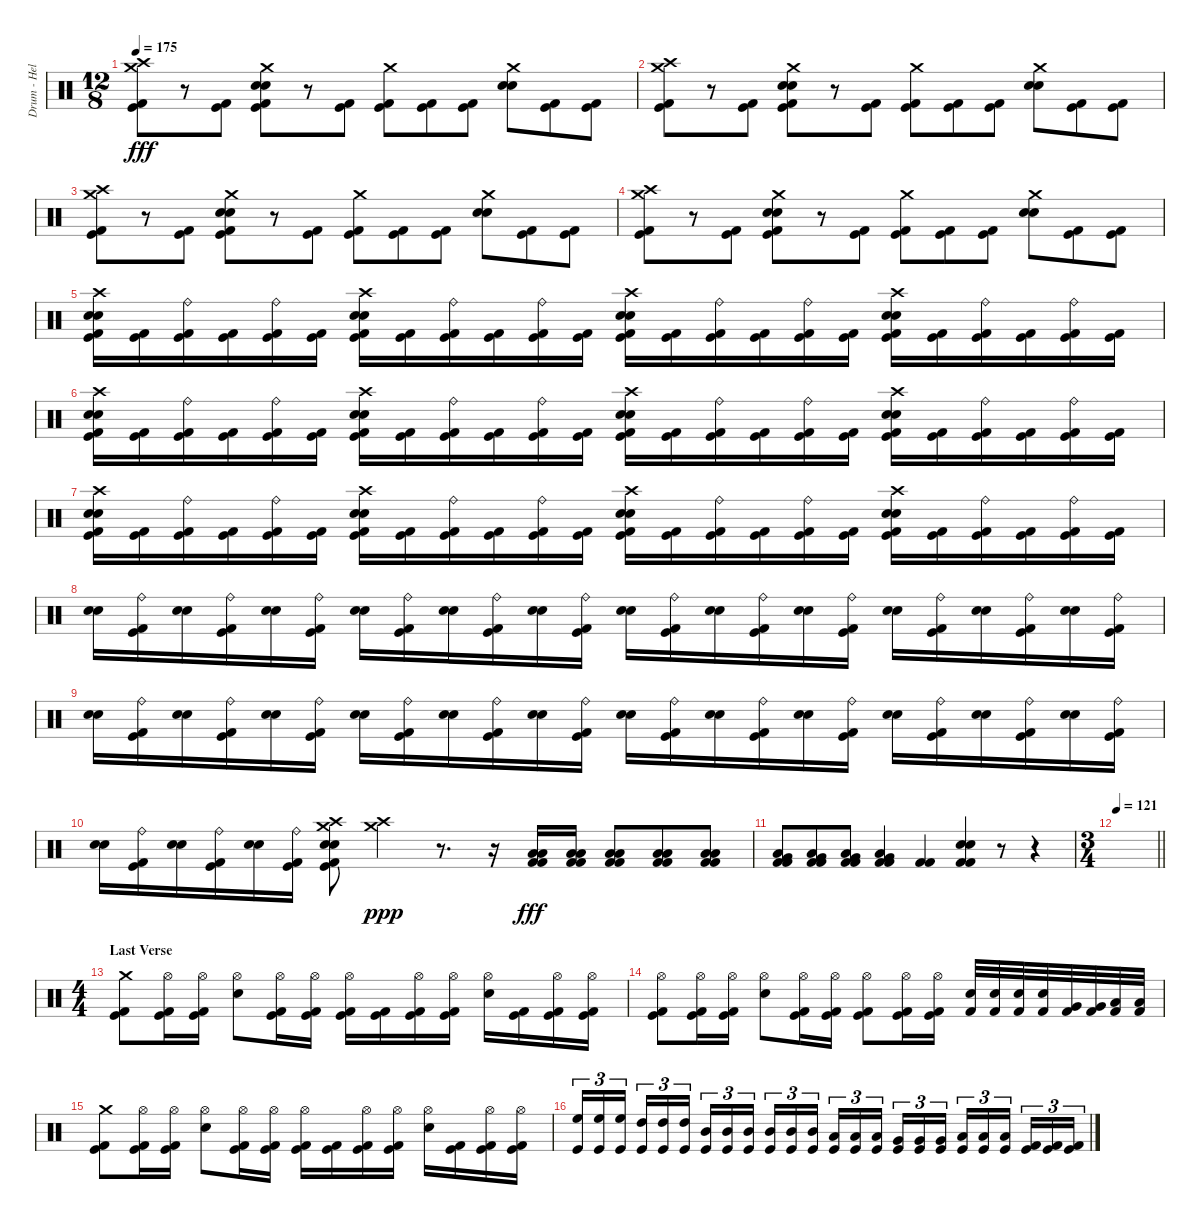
\track ("Drum - Hellhammer" "Drum - Hel") {instrument percussion}
\staff {score}
\articulation defaults
\ts (12 8)
\tempo 175
\clef neutral
\ks c
("Crash high (hit)" "Crash medium (hit)" "Kick (hit)" "Kick (hit) 2").8{dy fff} r.8 ("Kick (hit)" "Kick (hit) 2").8 ("Crash medium (hit)" "Electric Snare (hit)" "Electric Snare (hit)" "Kick (hit)" "Kick (hit) 2").8 r.8 ("Kick (hit)" "Kick (hit) 2").8 ("Crash medium (hit)" "Kick (hit)" "Kick (hit) 2").8 ("Kick (hit)" "Kick (hit) 2").8 ("Kick (hit)" "Kick (hit) 2").8 ("Crash medium (hit)" "Electric Snare (hit)" "Electric Snare (hit)").8 ("Kick (hit)" "Kick (hit) 2").8 ("Kick (hit)" "Kick (hit) 2").8 |
("Crash high (hit)" "Crash medium (hit)" "Kick (hit)" "Kick (hit) 2").8 r.8 ("Kick (hit)" "Kick (hit) 2").8 ("Crash medium (hit)" "Electric Snare (hit)" "Electric Snare (hit)" "Kick (hit)" "Kick (hit) 2").8 r.8 ("Kick (hit)" "Kick (hit) 2").8 ("Crash medium (hit)" "Kick (hit)" "Kick (hit) 2").8 ("Kick (hit)" "Kick (hit) 2").8 ("Kick (hit)" "Kick (hit) 2").8 ("Crash medium (hit)" "Electric Snare (hit)" "Electric Snare (hit)").8 ("Kick (hit)" "Kick (hit) 2").8 ("Kick (hit)" "Kick (hit) 2").8 |
("Crash high (hit)" "Crash medium (hit)" "Kick (hit)" "Kick (hit) 2").8 r.8 ("Kick (hit)" "Kick (hit) 2").8 ("Crash medium (hit)" "Electric Snare (hit)" "Electric Snare (hit)" "Kick (hit)" "Kick (hit) 2").8 r.8 ("Kick (hit)" "Kick (hit) 2").8 ("Crash medium (hit)" "Kick (hit)" "Kick (hit) 2").8 ("Kick (hit)" "Kick (hit) 2").8 ("Kick (hit)" "Kick (hit) 2").8 ("Crash medium (hit)" "Electric Snare (hit)" "Electric Snare (hit)").8 ("Kick (hit)" "Kick (hit) 2").8 ("Kick (hit)" "Kick (hit) 2").8 |
("Crash high (hit)" "Crash medium (hit)" "Kick (hit)" "Kick (hit) 2").8 r.8 ("Kick (hit)" "Kick (hit) 2").8 ("Crash medium (hit)" "Electric Snare (hit)" "Electric Snare (hit)" "Kick (hit)" "Kick (hit) 2").8 r.8 ("Kick (hit)" "Kick (hit) 2").8 ("Crash medium (hit)" "Kick (hit)" "Kick (hit) 2").8 ("Kick (hit)" "Kick (hit) 2").8 ("Kick (hit)" "Kick (hit) 2").8 ("Crash medium (hit)" "Electric Snare (hit)" "Electric Snare (hit)").8 ("Kick (hit)" "Kick (hit) 2").8 ("Kick (hit)" "Kick (hit) 2").8 |
("Crash high (hit)" "Electric Snare (hit)" "Electric Snare (hit)" "Kick (hit)" "Kick (hit) 2").16 ("Kick (hit)" "Kick (hit) 2").16 ("Ride (bell)" "Kick (hit)" "Kick (hit) 2").16 ("Kick (hit)" "Kick (hit) 2").16 ("Ride (bell)" "Kick (hit)" "Kick (hit) 2").16 ("Kick (hit)" "Kick (hit) 2").16 ("Crash high (hit)" "Electric Snare (hit)" "Electric Snare (hit)" "Kick (hit)" "Kick (hit) 2").16 ("Kick (hit)" "Kick (hit) 2").16 ("Ride (bell)" "Kick (hit)" "Kick (hit) 2").16 ("Kick (hit)" "Kick (hit) 2").16 ("Ride (bell)" "Kick (hit)" "Kick (hit) 2").16 ("Kick (hit)" "Kick (hit) 2").16 ("Crash high (hit)" "Electric Snare (hit)" "Electric Snare (hit)" "Kick (hit)" "Kick (hit) 2").16 ("Kick (hit)" "Kick (hit) 2").16 ("Ride (bell)" "Kick (hit)" "Kick (hit) 2").16 ("Kick (hit)" "Kick (hit) 2").16 ("Ride (bell)" "Kick (hit)" "Kick (hit) 2").16 ("Kick (hit)" "Kick (hit) 2").16 ("Crash high (hit)" "Electric Snare (hit)" "Electric Snare (hit)" "Kick (hit)" "Kick (hit) 2").16 ("Kick (hit)" "Kick (hit) 2").16 ("Ride (bell)" "Kick (hit)" "Kick (hit) 2").16 ("Kick (hit)" "Kick (hit) 2").16 ("Ride (bell)" "Kick (hit)" "Kick (hit) 2").16 ("Kick (hit)" "Kick (hit) 2").16 |
("Crash high (hit)" "Electric Snare (hit)" "Electric Snare (hit)" "Kick (hit)" "Kick (hit) 2").16 ("Kick (hit)" "Kick (hit) 2").16 ("Ride (bell)" "Kick (hit)" "Kick (hit) 2").16 ("Kick (hit)" "Kick (hit) 2").16 ("Ride (bell)" "Kick (hit)" "Kick (hit) 2").16 ("Kick (hit)" "Kick (hit) 2").16 ("Crash high (hit)" "Electric Snare (hit)" "Electric Snare (hit)" "Kick (hit)" "Kick (hit) 2").16 ("Kick (hit)" "Kick (hit) 2").16 ("Ride (bell)" "Kick (hit)" "Kick (hit) 2").16 ("Kick (hit)" "Kick (hit) 2").16 ("Ride (bell)" "Kick (hit)" "Kick (hit) 2").16 ("Kick (hit)" "Kick (hit) 2").16 ("Crash high (hit)" "Electric Snare (hit)" "Electric Snare (hit)" "Kick (hit)" "Kick (hit) 2").16 ("Kick (hit)" "Kick (hit) 2").16 ("Ride (bell)" "Kick (hit)" "Kick (hit) 2").16 ("Kick (hit)" "Kick (hit) 2").16 ("Ride (bell)" "Kick (hit)" "Kick (hit) 2").16 ("Kick (hit)" "Kick (hit) 2").16 ("Crash high (hit)" "Electric Snare (hit)" "Electric Snare (hit)" "Kick (hit)" "Kick (hit) 2").16 ("Kick (hit)" "Kick (hit) 2").16 ("Ride (bell)" "Kick (hit)" "Kick (hit) 2").16 ("Kick (hit)" "Kick (hit) 2").16 ("Ride (bell)" "Kick (hit)" "Kick (hit) 2").16 ("Kick (hit)" "Kick (hit) 2").16 |
("Crash high (hit)" "Electric Snare (hit)" "Electric Snare (hit)" "Kick (hit)" "Kick (hit) 2").16 ("Kick (hit)" "Kick (hit) 2").16 ("Ride (bell)" "Kick (hit)" "Kick (hit) 2").16 ("Kick (hit)" "Kick (hit) 2").16 ("Ride (bell)" "Kick (hit)" "Kick (hit) 2").16 ("Kick (hit)" "Kick (hit) 2").16 ("Crash high (hit)" "Electric Snare (hit)" "Electric Snare (hit)" "Kick (hit)" "Kick (hit) 2").16 ("Kick (hit)" "Kick (hit) 2").16 ("Ride (bell)" "Kick (hit)" "Kick (hit) 2").16 ("Kick (hit)" "Kick (hit) 2").16 ("Ride (bell)" "Kick (hit)" "Kick (hit) 2").16 ("Kick (hit)" "Kick (hit) 2").16 ("Crash high (hit)" "Electric Snare (hit)" "Electric Snare (hit)" "Kick (hit)" "Kick (hit) 2").16 ("Kick (hit)" "Kick (hit) 2").16 ("Ride (bell)" "Kick (hit)" "Kick (hit) 2").16 ("Kick (hit)" "Kick (hit) 2").16 ("Ride (bell)" "Kick (hit)" "Kick (hit) 2").16 ("Kick (hit)" "Kick (hit) 2").16 ("Crash high (hit)" "Electric Snare (hit)" "Electric Snare (hit)" "Kick (hit)" "Kick (hit) 2").16 ("Kick (hit)" "Kick (hit) 2").16 ("Ride (bell)" "Kick (hit)" "Kick (hit) 2").16 ("Kick (hit)" "Kick (hit) 2").16 ("Ride (bell)" "Kick (hit)" "Kick (hit) 2").16 ("Kick (hit)" "Kick (hit) 2").16 |
("Electric Snare (hit)" "Electric Snare (hit)").16 ("Ride (bell)" "Kick (hit)" "Kick (hit) 2").16 ("Electric Snare (hit)" "Electric Snare (hit)").16 ("Ride (bell)" "Kick (hit)" "Kick (hit) 2").16 ("Electric Snare (hit)" "Electric Snare (hit)").16 ("Ride (bell)" "Kick (hit)" "Kick (hit) 2").16 ("Electric Snare (hit)" "Electric Snare (hit)").16 ("Ride (bell)" "Kick (hit)" "Kick (hit) 2").16 ("Electric Snare (hit)" "Electric Snare (hit)").16 ("Ride (bell)" "Kick (hit)" "Kick (hit) 2").16 ("Electric Snare (hit)" "Electric Snare (hit)").16 ("Ride (bell)" "Kick (hit)" "Kick (hit) 2").16 ("Electric Snare (hit)" "Electric Snare (hit)").16 ("Ride (bell)" "Kick (hit)" "Kick (hit) 2").16 ("Electric Snare (hit)" "Electric Snare (hit)").16 ("Ride (bell)" "Kick (hit)" "Kick (hit) 2").16 ("Electric Snare (hit)" "Electric Snare (hit)").16 ("Ride (bell)" "Kick (hit)" "Kick (hit) 2").16 ("Electric Snare (hit)" "Electric Snare (hit)").16 ("Ride (bell)" "Kick (hit)" "Kick (hit) 2").16 ("Electric Snare (hit)" "Electric Snare (hit)").16 ("Ride (bell)" "Kick (hit)" "Kick (hit) 2").16 ("Electric Snare (hit)" "Electric Snare (hit)").16 ("Ride (bell)" "Kick (hit)" "Kick (hit) 2").16 |
("Electric Snare (hit)" "Electric Snare (hit)").16 ("Ride (bell)" "Kick (hit)" "Kick (hit) 2").16 ("Electric Snare (hit)" "Electric Snare (hit)").16 ("Ride (bell)" "Kick (hit)" "Kick (hit) 2").16 ("Electric Snare (hit)" "Electric Snare (hit)").16 ("Ride (bell)" "Kick (hit)" "Kick (hit) 2").16 ("Electric Snare (hit)" "Electric Snare (hit)").16 ("Ride (bell)" "Kick (hit)" "Kick (hit) 2").16 ("Electric Snare (hit)" "Electric Snare (hit)").16 ("Ride (bell)" "Kick (hit)" "Kick (hit) 2").16 ("Electric Snare (hit)" "Electric Snare (hit)").16 ("Ride (bell)" "Kick (hit)" "Kick (hit) 2").16 ("Electric Snare (hit)" "Electric Snare (hit)").16 ("Ride (bell)" "Kick (hit)" "Kick (hit) 2").16 ("Electric Snare (hit)" "Electric Snare (hit)").16 ("Ride (bell)" "Kick (hit)" "Kick (hit) 2").16 ("Electric Snare (hit)" "Electric Snare (hit)").16 ("Ride (bell)" "Kick (hit)" "Kick (hit) 2").16 ("Electric Snare (hit)" "Electric Snare (hit)").16 ("Ride (bell)" "Kick (hit)" "Kick (hit) 2").16 ("Electric Snare (hit)" "Electric Snare (hit)").16 ("Ride (bell)" "Kick (hit)" "Kick (hit) 2").16 ("Electric Snare (hit)" "Electric Snare (hit)").16 ("Ride (bell)" "Kick (hit)" "Kick (hit) 2").16 |
("Electric Snare (hit)" "Electric Snare (hit)").16 ("Ride (bell)" "Kick (hit)" "Kick (hit) 2").16 ("Electric Snare (hit)" "Electric Snare (hit)").16 ("Ride (bell)" "Kick (hit)" "Kick (hit) 2").16 ("Electric Snare (hit)" "Electric Snare (hit)").16 ("Ride (bell)" "Kick (hit)" "Kick (hit) 2").16 ("Crash high (hit)" "Crash medium (hit)" "Electric Snare (hit)" "Electric Snare (hit)" "Kick (hit)" "Kick (hit) 2").8 ("Crash high (hit)" "Crash medium (hit)").4{dy ppp} r.8{d} r.16 ("Low Tom (hit)" "Low Floor Tom (hit)" "Kick (hit) 2" "Kick (hit) 2").16{dy fff} ("Low Tom (hit)" "Low Floor Tom (hit)" "Kick (hit) 2" "Kick (hit) 2").16 ("Low Tom (hit)" "Low Floor Tom (hit)" "Kick (hit) 2" "Kick (hit) 2").8 ("Low Tom (hit)" "Low Floor Tom (hit)" "Kick (hit) 2" "Kick (hit) 2").8 ("Low Tom (hit)" "Low Floor Tom (hit)" "Kick (hit) 2" "Kick (hit) 2").8 |
("Low Floor Tom (hit)" "Very Low Tom (hit)" "Kick (hit) 2" "Kick (hit) 2").8 ("Low Floor Tom (hit)" "Very Low Tom (hit)" "Kick (hit) 2" "Kick (hit) 2").8 ("Low Floor Tom (hit)" "Very Low Tom (hit)" "Kick (hit) 2" "Kick (hit) 2").8 ("Low Tom (hit)" "Very Low Tom (hit)" "Kick (hit) 2" "Kick (hit) 2").4 ("Kick (hit) 2" "Kick (hit) 2").4 ("Electric Snare (hit)" "Electric Snare (hit)" "Kick (hit) 2" "Kick (hit) 2").4 r.8 r.4 |
\ts (3 4)
\tempo 121
\barLineRight lightlight
|
\ts (4 4)
\section ("" "Last Verse")
("Crash medium (hit)" "Kick (hit) 2" "Kick (hit)").8 ("Hi-Hat (open)" "Kick (hit) 2" "Kick (hit)").16 ("Hi-Hat (open)" "Kick (hit) 2" "Kick (hit)").16 ("Hi-Hat (open)" "Electric Snare (hit)").8 ("Hi-Hat (open)" "Kick (hit) 2" "Kick (hit)").16 ("Hi-Hat (open)" "Kick (hit) 2" "Kick (hit)").16 ("Hi-Hat (open)" "Kick (hit) 2" "Kick (hit)").16 ("Kick (hit) 2" "Kick (hit)").16 ("Hi-Hat (open)" "Kick (hit) 2" "Kick (hit)").16 ("Hi-Hat (open)" "Kick (hit) 2" "Kick (hit)").16 ("Hi-Hat (open)" "Electric Snare (hit)").16 ("Kick (hit) 2" "Kick (hit)").16 ("Hi-Hat (open)" "Kick (hit) 2" "Kick (hit)").16 ("Hi-Hat (open)" "Kick (hit) 2" "Kick (hit)").16 |
("Hi-Hat (open)" "Kick (hit) 2" "Kick (hit)").8 ("Hi-Hat (open)" "Kick (hit) 2" "Kick (hit)").16 ("Hi-Hat (open)" "Kick (hit) 2" "Kick (hit)").16 ("Hi-Hat (open)" "Electric Snare (hit)").8 ("Hi-Hat (open)" "Kick (hit) 2" "Kick (hit)").16 ("Hi-Hat (open)" "Kick (hit) 2" "Kick (hit)").16 ("Hi-Hat (open)" "Kick (hit) 2" "Kick (hit)").8 ("Hi-Hat (open)" "Kick (hit) 2" "Kick (hit)").16 ("Hi-Hat (open)" "Kick (hit) 2" "Kick (hit)").16 ("Kick (hit) 2" "Electric Snare (hit)").32 ("Kick (hit) 2" "Electric Snare (hit)").32 ("Kick (hit) 2" "Electric Snare (hit)").32 ("Kick (hit) 2" "Electric Snare (hit)").32 ("Kick (hit) 2" "Very Low Tom (hit)").32 ("Kick (hit) 2" "Very Low Tom (hit)").32 ("Kick (hit) 2" "Low Floor Tom (hit)").32 ("Kick (hit) 2" "Low Floor Tom (hit)").32 |
("Crash medium (hit)" "Kick (hit) 2" "Kick (hit)").8 ("Hi-Hat (open)" "Kick (hit) 2" "Kick (hit)").16 ("Hi-Hat (open)" "Kick (hit) 2" "Kick (hit)").16 ("Hi-Hat (open)" "Electric Snare (hit)").8 ("Hi-Hat (open)" "Kick (hit) 2" "Kick (hit)").16 ("Hi-Hat (open)" "Kick (hit) 2" "Kick (hit)").16 ("Hi-Hat (open)" "Kick (hit) 2" "Kick (hit)").16 ("Kick (hit) 2" "Kick (hit)").16 ("Hi-Hat (open)" "Kick (hit) 2" "Kick (hit)").16 ("Hi-Hat (open)" "Kick (hit) 2" "Kick (hit)").16 ("Hi-Hat (open)" "Electric Snare (hit)").16 ("Kick (hit) 2" "Kick (hit)").16 ("Hi-Hat (open)" "Kick (hit) 2" "Kick (hit)").16 ("Hi-Hat (open)" "Kick (hit) 2" "Kick (hit)").16 |
("High Floor Tom (hit)" "Kick (hit)").16{tu (3 2)} ("High Floor Tom (hit)" "Kick (hit)").16{tu (3 2)} ("High Floor Tom (hit)" "Kick (hit)").16{tu (3 2) beam splitsecondary} ("High Tom (hit)" "Kick (hit)").16{tu (3 2)} ("High Tom (hit)" "Kick (hit)").16{tu (3 2)} ("High Tom (hit)" "Kick (hit)").16{tu (3 2)} ("Mid Tom (hit)" "Kick (hit)").16{tu (3 2)} ("Mid Tom (hit)" "Kick (hit)").16{tu (3 2)} ("Mid Tom (hit)" "Kick (hit)").16{tu (3 2) beam splitsecondary} ("Mid Tom (hit)" "Kick (hit)").16{tu (3 2)} ("Mid Tom (hit)" "Kick (hit)").16{tu (3 2)} ("Mid Tom (hit)" "Kick (hit)").16{tu (3 2)} ("Low Tom (hit)" "Kick (hit)").16{tu (3 2)} ("Low Tom (hit)" "Kick (hit)").16{tu (3 2)} ("Low Tom (hit)" "Kick (hit)").16{tu (3 2) beam splitsecondary} ("Very Low Tom (hit)" "Kick (hit)").16{tu (3 2)} ("Very Low Tom (hit)" "Kick (hit)").16{tu (3 2)} ("Very Low Tom (hit)" "Kick (hit)").16{tu (3 2)} ("Low Floor Tom (hit)" "Kick (hit)").16{tu (3 2)} ("Low Floor Tom (hit)" "Kick (hit)").16{tu (3 2)} ("Low Floor Tom (hit)" "Kick (hit)").16{tu (3 2) beam splitsecondary} ("Kick (hit)" "Kick (hit) 2").16{tu (3 2)} ("Kick (hit)" "Kick (hit) 2").16{tu (3 2)} ("Kick (hit)" "Kick (hit) 2").16{tu (3 2)}
